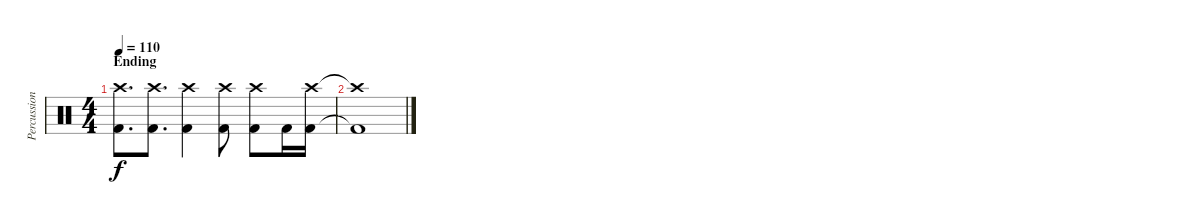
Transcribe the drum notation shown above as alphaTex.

\track ("Percussion" "Percussion") {instrument percussion}
\staff {score}
\articulation defaults
\ts (4 4)
\section ("" "Ending")
\tempo 110
\clef neutral
\ks c
("Crash high (hit)" "Kick (hit) 2").8{d dy f} ("Crash high (hit)" "Kick (hit) 2").8{d} ("Crash high (hit)" "Kick (hit) 2").4 ("Crash high (hit)" "Kick (hit) 2").8 ("Crash high (hit)" "Kick (hit) 2").8 "Kick (hit) 2".16 ("Crash high (hit)" "Kick (hit) 2").16 |
("Crash high (hit)"{t} "Kick (hit) 2"{t}).1
